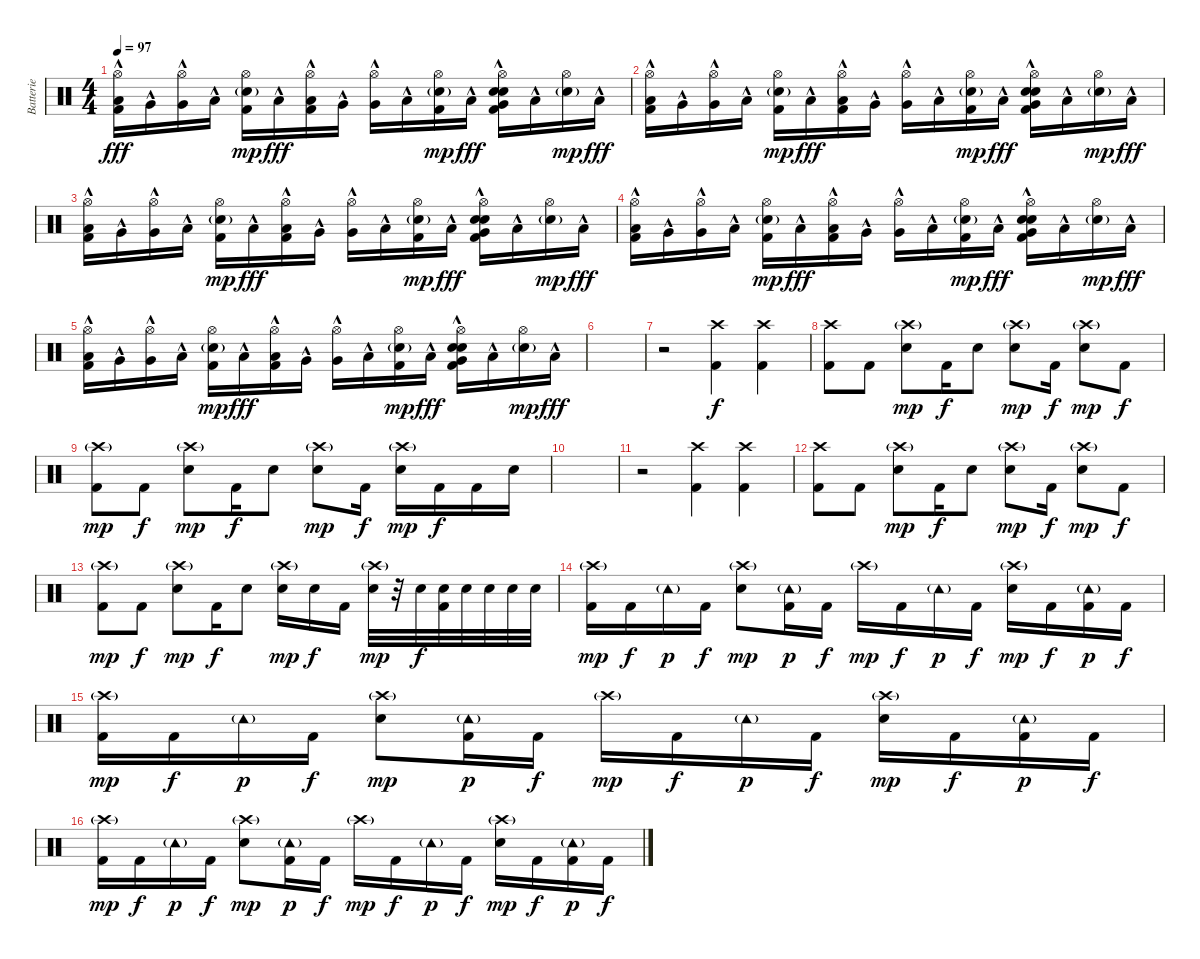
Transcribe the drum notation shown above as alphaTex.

\track ("Batterie" "Batterie") {instrument percussion}
\staff {score}
\articulation defaults
\ts (4 4)
\tempo 97
\clef neutral
\ks c
("Hi-Hat (open)" "Low Tom (hit)"{hac} "Kick (hit) 2").16{dy fff} "Very Low Tom (hit)"{hac}.16 ("Hi-Hat (open)" "Very Low Tom (hit)"{hac}).16 "Low Floor Tom (hit)"{hac}.16 ("Hi-Hat (open)" "Snare (hit) 2"{g} "Kick (hit) 2").16{dy mp} "Low Floor Tom (hit)"{hac}.16{dy fff} ("Hi-Hat (open)" "Low Tom (hit)"{hac} "Kick (hit) 2").16 "Very Low Tom (hit)"{hac}.16 ("Hi-Hat (open)" "Very Low Tom (hit)"{hac}).16 "Low Floor Tom (hit)"{hac}.16 ("Hi-Hat (open)" "Snare (hit) 2"{g} "Kick (hit) 2").16{dy mp} "Low Floor Tom (hit)"{hac}.16{dy fff} ("Hi-Hat (open)" "Very Low Tom (hit)"{hac} "Electric Snare (hit)"{hac} "Snare (hit) 2"{hac} "Kick (hit) 2").16 "Low Floor Tom (hit)"{hac}.16 ("Hi-Hat (open)" "Snare (hit) 2"{g}).16{dy mp} "Low Floor Tom (hit)"{hac}.16{dy fff} |
("Hi-Hat (open)" "Low Tom (hit)"{hac} "Kick (hit) 2").16 "Very Low Tom (hit)"{hac}.16 ("Hi-Hat (open)" "Very Low Tom (hit)"{hac}).16 "Low Floor Tom (hit)"{hac}.16 ("Hi-Hat (open)" "Snare (hit) 2"{g} "Kick (hit) 2").16{dy mp} "Low Floor Tom (hit)"{hac}.16{dy fff} ("Hi-Hat (open)" "Low Tom (hit)"{hac} "Kick (hit) 2").16 "Very Low Tom (hit)"{hac}.16 ("Hi-Hat (open)" "Very Low Tom (hit)"{hac}).16 "Low Floor Tom (hit)"{hac}.16 ("Hi-Hat (open)" "Snare (hit) 2"{g} "Kick (hit) 2").16{dy mp} "Low Floor Tom (hit)"{hac}.16{dy fff} ("Hi-Hat (open)" "Very Low Tom (hit)"{hac} "Electric Snare (hit)"{hac} "Snare (hit) 2"{hac} "Kick (hit) 2").16 "Low Floor Tom (hit)"{hac}.16 ("Hi-Hat (open)" "Snare (hit) 2"{g}).16{dy mp} "Low Floor Tom (hit)"{hac}.16{dy fff} |
("Hi-Hat (open)" "Low Tom (hit)"{hac} "Kick (hit) 2").16 "Very Low Tom (hit)"{hac}.16 ("Hi-Hat (open)" "Very Low Tom (hit)"{hac}).16 "Low Floor Tom (hit)"{hac}.16 ("Hi-Hat (open)" "Snare (hit) 2"{g} "Kick (hit) 2").16{dy mp} "Low Floor Tom (hit)"{hac}.16{dy fff} ("Hi-Hat (open)" "Low Tom (hit)"{hac} "Kick (hit) 2").16 "Very Low Tom (hit)"{hac}.16 ("Hi-Hat (open)" "Very Low Tom (hit)"{hac}).16 "Low Floor Tom (hit)"{hac}.16 ("Hi-Hat (open)" "Snare (hit) 2"{g} "Kick (hit) 2").16{dy mp} "Low Floor Tom (hit)"{hac}.16{dy fff} ("Hi-Hat (open)" "Very Low Tom (hit)"{hac} "Electric Snare (hit)"{hac} "Snare (hit) 2"{hac} "Kick (hit) 2").16 "Low Floor Tom (hit)"{hac}.16 ("Hi-Hat (open)" "Snare (hit) 2"{g}).16{dy mp} "Low Floor Tom (hit)"{hac}.16{dy fff} |
("Hi-Hat (open)" "Low Tom (hit)"{hac} "Kick (hit) 2").16 "Very Low Tom (hit)"{hac}.16 ("Hi-Hat (open)" "Very Low Tom (hit)"{hac}).16 "Low Floor Tom (hit)"{hac}.16 ("Hi-Hat (open)" "Snare (hit) 2"{g} "Kick (hit) 2").16{dy mp} "Low Floor Tom (hit)"{hac}.16{dy fff} ("Hi-Hat (open)" "Low Tom (hit)"{hac} "Kick (hit) 2").16 "Very Low Tom (hit)"{hac}.16 ("Hi-Hat (open)" "Very Low Tom (hit)"{hac}).16 "Low Floor Tom (hit)"{hac}.16 ("Hi-Hat (open)" "Snare (hit) 2"{g} "Kick (hit) 2").16{dy mp} "Low Floor Tom (hit)"{hac}.16{dy fff} ("Hi-Hat (open)" "Very Low Tom (hit)"{hac} "Electric Snare (hit)"{hac} "Snare (hit) 2"{hac} "Kick (hit) 2").16 "Low Floor Tom (hit)"{hac}.16 ("Hi-Hat (open)" "Snare (hit) 2"{g}).16{dy mp} "Low Floor Tom (hit)"{hac}.16{dy fff} |
("Hi-Hat (open)" "Low Tom (hit)"{hac} "Kick (hit) 2").16 "Very Low Tom (hit)"{hac}.16 ("Hi-Hat (open)" "Very Low Tom (hit)"{hac}).16 "Low Floor Tom (hit)"{hac}.16 ("Hi-Hat (open)" "Snare (hit) 2"{g} "Kick (hit) 2").16{dy mp} "Low Floor Tom (hit)"{hac}.16{dy fff} ("Hi-Hat (open)" "Low Tom (hit)"{hac} "Kick (hit) 2").16 "Very Low Tom (hit)"{hac}.16 ("Hi-Hat (open)" "Very Low Tom (hit)"{hac}).16 "Low Floor Tom (hit)"{hac}.16 ("Hi-Hat (open)" "Snare (hit) 2"{g} "Kick (hit) 2").16{dy mp} "Low Floor Tom (hit)"{hac}.16{dy fff} ("Hi-Hat (open)" "Very Low Tom (hit)"{hac} "Electric Snare (hit)"{hac} "Snare (hit) 2"{hac} "Kick (hit) 2").16 "Low Floor Tom (hit)"{hac}.16 ("Hi-Hat (open)" "Snare (hit) 2"{g}).16{dy mp} "Low Floor Tom (hit)"{hac}.16{dy fff} |
|
r.2 ("Crash high (hit)" "Kick (hit) 2").4{dy f} ("Crash high (hit)" "Kick (hit) 2").4 |
("Crash high (hit)" "Kick (hit) 2").8 "Kick (hit) 2".8 ("Crash high (hit)"{g} "Snare (hit) 2").8{dy mp} "Kick (hit) 2".16{dy f} "Snare (hit) 2".8 ("Crash high (hit)"{g} "Snare (hit) 2").8{dy mp} "Kick (hit) 2".16{dy f} ("Crash high (hit)"{g} "Snare (hit) 2").8{dy mp} "Kick (hit) 2".8{dy f} |
("Crash high (hit)"{g} "Kick (hit) 2").8{dy mp} "Kick (hit) 2".8{dy f} ("Crash high (hit)"{g} "Snare (hit) 2").8{dy mp} "Kick (hit) 2".16{dy f} "Snare (hit) 2".8 ("Crash high (hit)"{g} "Snare (hit) 2").8{dy mp} "Kick (hit) 2".16{dy f} ("Crash high (hit)"{g} "Snare (hit) 2").16{dy mp} "Kick (hit) 2".16{dy f} "Kick (hit) 2".16 "Snare (hit) 2".16 |
|
r.2 ("Crash high (hit)" "Kick (hit) 2").4 ("Crash high (hit)" "Kick (hit) 2").4 |
("Crash high (hit)" "Kick (hit) 2").8 "Kick (hit) 2".8 ("Crash high (hit)"{g} "Snare (hit) 2").8{dy mp} "Kick (hit) 2".16{dy f} "Snare (hit) 2".8 ("Crash high (hit)"{g} "Snare (hit) 2").8{dy mp} "Kick (hit) 2".16{dy f} ("Crash high (hit)"{g} "Snare (hit) 2").8{dy mp} "Kick (hit) 2".8{dy f} |
("Crash high (hit)"{g} "Kick (hit) 2").8{dy mp} "Kick (hit) 2".8{dy f} ("Crash high (hit)"{g} "Snare (hit) 2").8{dy mp} "Kick (hit) 2".16{dy f} "Snare (hit) 2".8 ("Crash high (hit)"{g} "Snare (hit) 2").16{dy mp} "Snare (hit) 2".16{dy f} "Kick (hit) 2".16 ("Crash high (hit)"{g} "Snare (hit) 2").32{dy mp} r.32 "Snare (hit) 2".32{dy f} ("Snare (hit) 2" "Kick (hit) 2").32 "Snare (hit) 2".32 "Snare (hit) 2".32 "Snare (hit) 2".32 "Snare (hit) 2".32 |
("Crash high (hit)"{g} "Kick (hit) 2").16{dy mp} "Kick (hit) 2".16{dy f} "Tambourine (hit)"{g}.16{dy p} "Kick (hit) 2".16{dy f} ("Crash high (hit)"{g} "Snare (hit) 2").8{dy mp} ("Tambourine (hit)"{g} "Kick (hit) 2").16{dy p} "Kick (hit) 2".16{dy f} "Crash high (hit)"{g}.16{dy mp} "Kick (hit) 2".16{dy f} "Tambourine (hit)"{g}.16{dy p} "Kick (hit) 2".16{dy f} ("Crash high (hit)"{g} "Snare (hit) 2").16{dy mp} "Kick (hit) 2".16{dy f} ("Tambourine (hit)"{g} "Kick (hit) 2").16{dy p} "Kick (hit) 2".16{dy f} |
("Crash high (hit)"{g} "Kick (hit) 2").16{dy mp} "Kick (hit) 2".16{dy f} "Tambourine (hit)"{g}.16{dy p} "Kick (hit) 2".16{dy f} ("Crash high (hit)"{g} "Snare (hit) 2").8{dy mp} ("Tambourine (hit)"{g} "Kick (hit) 2").16{dy p} "Kick (hit) 2".16{dy f} "Crash high (hit)"{g}.16{dy mp} "Kick (hit) 2".16{dy f} "Tambourine (hit)"{g}.16{dy p} "Kick (hit) 2".16{dy f} ("Crash high (hit)"{g} "Snare (hit) 2").16{dy mp} "Kick (hit) 2".16{dy f} ("Tambourine (hit)"{g} "Kick (hit) 2").16{dy p} "Kick (hit) 2".16{dy f} |
("Crash high (hit)"{g} "Kick (hit) 2").16{dy mp} "Kick (hit) 2".16{dy f} "Tambourine (hit)"{g}.16{dy p} "Kick (hit) 2".16{dy f} ("Crash high (hit)"{g} "Snare (hit) 2").8{dy mp} ("Tambourine (hit)"{g} "Kick (hit) 2").16{dy p} "Kick (hit) 2".16{dy f} "Crash high (hit)"{g}.16{dy mp} "Kick (hit) 2".16{dy f} "Tambourine (hit)"{g}.16{dy p} "Kick (hit) 2".16{dy f} ("Crash high (hit)"{g} "Snare (hit) 2").16{dy mp} "Kick (hit) 2".16{dy f} ("Tambourine (hit)"{g} "Kick (hit) 2").16{dy p} "Kick (hit) 2".16{dy f}
